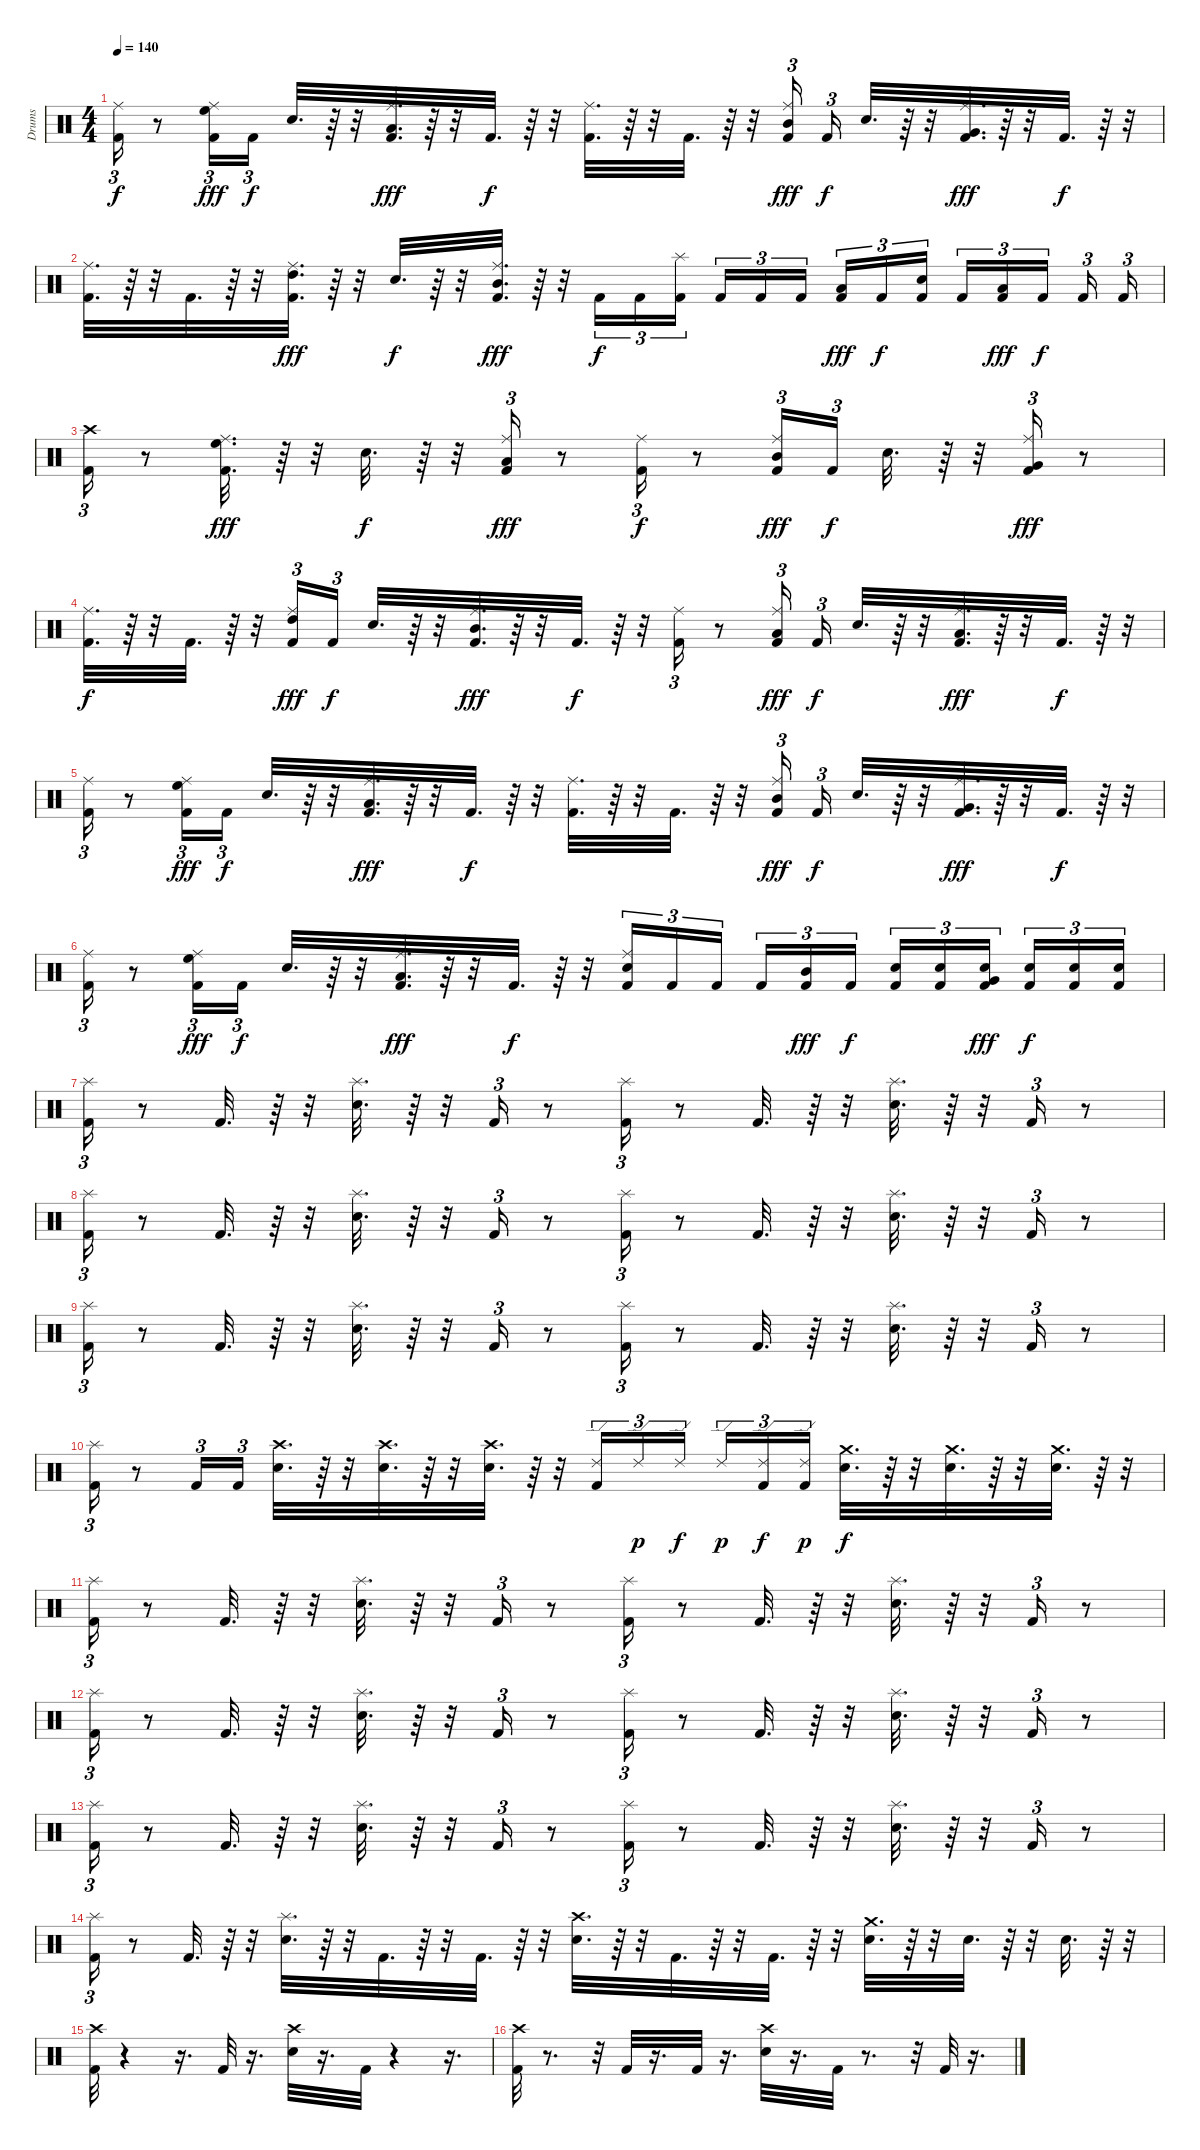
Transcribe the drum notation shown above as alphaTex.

\track ("Drums" "Drums") {instrument percussion}
\staff {score}
\articulation defaults
\ts (4 4)
\tempo 140
\clef neutral
\ks c
("Kick (hit) 2" "Ride (middle)").16{tu (3 2) dy f} r.8 ("Kick (hit) 2" "High Floor Tom (hit)" "Ride (middle)").16{tu (3 2) dy fff} "Kick (hit) 2".16{tu (3 2) dy f} "Electric Snare (hit)".32{d} r.64 r.32 ("Kick (hit) 2" "Low Tom (hit)" "Ride (middle)").32{d dy fff} r.64 r.32 "Kick (hit) 2".32{d dy f} r.64 r.32 ("Kick (hit) 2" "Ride (middle)").32{d} r.64 r.32 "Kick (hit) 2".32{d} r.64 r.32 ("Kick (hit) 2" "Mid Tom (hit)" "Ride (middle)").16{tu (3 2) dy fff} "Kick (hit) 2".16{tu (3 2) dy f} "Electric Snare (hit)".32{d} r.64 r.32 ("Kick (hit) 2" "Very Low Tom (hit)" "Ride (middle)").32{d dy fff} r.64 r.32 "Kick (hit) 2".32{d dy f} r.64 r.32 |
("Kick (hit) 2" "Ride (middle)").32{d} r.64 r.32 "Kick (hit) 2".32{d} r.64 r.32 ("Kick (hit) 2" "High Tom (hit)" "Ride (middle)").32{d dy fff} r.64 r.32 "Electric Snare (hit)".32{d dy f} r.64 r.32 ("Kick (hit) 2" "Mid Tom (hit)" "Ride (middle)").32{d dy fff} r.64 r.32 "Kick (hit) 2".16{tu (3 2) dy f} "Kick (hit) 2".16{tu (3 2)} ("Kick (hit) 2" "Splash (hit)").16{tu (3 2) beam splitsecondary} "Kick (hit) 2".16{tu (3 2)} "Kick (hit) 2".16{tu (3 2)} "Kick (hit) 2".16{tu (3 2) beam splitsecondary} ("Kick (hit) 2" "Low Tom (hit)").16{tu (3 2) dy fff} "Kick (hit) 2".16{tu (3 2) dy f} ("Kick (hit) 2" "Electric Snare (hit)").16{tu (3 2) beam splitsecondary} "Kick (hit) 2".16{tu (3 2)} ("Kick (hit) 2" "Low Floor Tom (hit)").16{tu (3 2) dy fff} "Kick (hit) 2".16{tu (3 2) dy f beam splitsecondary} "Kick (hit) 2".16{tu (3 2)} "Kick (hit) 2".16{tu (3 2)} |
("Kick (hit) 2" "Crash high (hit)").16{tu (3 2)} r.8 ("Kick (hit) 2" "High Floor Tom (hit)" "Ride (middle)").32{d dy fff} r.64 r.32 "Electric Snare (hit)".32{d dy f} r.64 r.32 ("Kick (hit) 2" "Low Tom (hit)" "Ride (middle)").16{tu (3 2) dy fff} r.8 ("Kick (hit) 2" "Ride (middle)").16{tu (3 2) dy f} r.8 ("Kick (hit) 2" "Mid Tom (hit)" "Ride (middle)").16{tu (3 2) dy fff} "Kick (hit) 2".16{tu (3 2) dy f} "Electric Snare (hit)".32{d} r.64 r.32 ("Kick (hit) 2" "Very Low Tom (hit)" "Ride (middle)").16{tu (3 2) dy fff} r.8 |
("Kick (hit) 2" "Ride (middle)").32{d dy f} r.64 r.32 "Kick (hit) 2".32{d} r.64 r.32 ("Kick (hit) 2" "High Tom (hit)" "Ride (middle)").16{tu (3 2) dy fff} "Kick (hit) 2".16{tu (3 2) dy f} "Electric Snare (hit)".32{d} r.64 r.32 ("Kick (hit) 2" "Mid Tom (hit)" "Ride (middle)").32{d dy fff} r.64 r.32 "Kick (hit) 2".32{d dy f} r.64 r.32 ("Kick (hit) 2" "Ride (middle)").16{tu (3 2)} r.8 ("Kick (hit) 2" "Low Tom (hit)" "Ride (middle)").16{tu (3 2) dy fff} "Kick (hit) 2".16{tu (3 2) dy f} "Electric Snare (hit)".32{d} r.64 r.32 ("Kick (hit) 2" "Low Floor Tom (hit)" "Ride (middle)").32{d dy fff} r.64 r.32 "Kick (hit) 2".32{d dy f} r.64 r.32 |
("Kick (hit) 2" "Ride (middle)").16{tu (3 2)} r.8 ("Kick (hit) 2" "High Floor Tom (hit)" "Ride (middle)").16{tu (3 2) dy fff} "Kick (hit) 2".16{tu (3 2) dy f} "Electric Snare (hit)".32{d} r.64 r.32 ("Kick (hit) 2" "Low Tom (hit)" "Ride (middle)").32{d dy fff} r.64 r.32 "Kick (hit) 2".32{d dy f} r.64 r.32 ("Kick (hit) 2" "Ride (middle)").32{d} r.64 r.32 "Kick (hit) 2".32{d} r.64 r.32 ("Kick (hit) 2" "Mid Tom (hit)" "Ride (middle)").16{tu (3 2) dy fff} "Kick (hit) 2".16{tu (3 2) dy f} "Electric Snare (hit)".32{d} r.64 r.32 ("Kick (hit) 2" "Very Low Tom (hit)" "Ride (middle)").32{d dy fff} r.64 r.32 "Kick (hit) 2".32{d dy f} r.64 r.32 |
("Kick (hit) 2" "Ride (middle)").16{tu (3 2)} r.8 ("Kick (hit) 2" "High Floor Tom (hit)" "Ride (middle)").16{tu (3 2) dy fff} "Kick (hit) 2".16{tu (3 2) dy f} "Electric Snare (hit)".32{d} r.64 r.32 ("Kick (hit) 2" "Low Tom (hit)" "Ride (middle)").32{d dy fff} r.64 r.32 "Kick (hit) 2".32{d dy f} r.64 r.32 ("Kick (hit) 2" "Electric Snare (hit)" "Ride (middle)").16{tu (3 2)} "Kick (hit) 2".16{tu (3 2)} "Kick (hit) 2".16{tu (3 2) beam splitsecondary} "Kick (hit) 2".16{tu (3 2)} ("Kick (hit) 2" "Mid Tom (hit)").16{tu (3 2) dy fff} "Kick (hit) 2".16{tu (3 2) dy f} ("Kick (hit) 2" "Electric Snare (hit)").16{tu (3 2)} ("Kick (hit) 2" "Electric Snare (hit)").16{tu (3 2)} ("Kick (hit) 2" "Electric Snare (hit)" "Very Low Tom (hit)").16{tu (3 2) dy fff beam splitsecondary} ("Kick (hit) 2" "Electric Snare (hit)").16{tu (3 2) dy f} ("Kick (hit) 2" "Electric Snare (hit)").16{tu (3 2)} ("Kick (hit) 2" "Electric Snare (hit)").16{tu (3 2)} |
("Kick (hit) 2" "Splash (hit)").16{tu (3 2)} r.8 "Kick (hit) 2".32{d} r.64 r.32 ("Electric Snare (hit)" "Splash (hit)").32{d} r.64 r.32 "Kick (hit) 2".16{tu (3 2)} r.8 ("Kick (hit) 2" "Splash (hit)").16{tu (3 2)} r.8 "Kick (hit) 2".32{d} r.64 r.32 ("Electric Snare (hit)" "Splash (hit)").32{d} r.64 r.32 "Kick (hit) 2".16{tu (3 2)} r.8 |
("Kick (hit) 2" "Splash (hit)").16{tu (3 2)} r.8 "Kick (hit) 2".32{d} r.64 r.32 ("Electric Snare (hit)" "Splash (hit)").32{d} r.64 r.32 "Kick (hit) 2".16{tu (3 2)} r.8 ("Kick (hit) 2" "Splash (hit)").16{tu (3 2)} r.8 "Kick (hit) 2".32{d} r.64 r.32 ("Electric Snare (hit)" "Splash (hit)").32{d} r.64 r.32 "Kick (hit) 2".16{tu (3 2)} r.8 |
("Kick (hit) 2" "Splash (hit)").16{tu (3 2)} r.8 "Kick (hit) 2".32{d} r.64 r.32 ("Electric Snare (hit)" "Splash (hit)").32{d} r.64 r.32 "Kick (hit) 2".16{tu (3 2)} r.8 ("Kick (hit) 2" "Splash (hit)").16{tu (3 2)} r.8 "Kick (hit) 2".32{d} r.64 r.32 ("Electric Snare (hit)" "Splash (hit)").32{d} r.64 r.32 "Kick (hit) 2".16{tu (3 2)} r.8 |
("Kick (hit) 2" "Splash (hit)").16{tu (3 2)} r.8 "Kick (hit) 2".16{tu (3 2)} "Kick (hit) 2".16{tu (3 2)} ("Electric Snare (hit)" "Crash high (hit)").32{d} r.64 r.32 ("Electric Snare (hit)" "Crash high (hit)").32{d} r.64 r.32 ("Electric Snare (hit)" "Crash high (hit)").32{d} r.64 r.32 ("Kick (hit) 2" "Ride (edge) 2").16{tu (3 2)} "Ride (edge) 2".16{tu (3 2) dy p} "Ride (edge) 2".16{tu (3 2) dy f beam splitsecondary} "Ride (edge) 2".16{tu (3 2) dy p} ("Kick (hit) 2" "Ride (edge) 2").16{tu (3 2) dy f} ("Kick (hit) 2" "Ride (edge) 2").16{tu (3 2) dy p} ("Electric Snare (hit)" "Crash medium (hit)").32{d dy f} r.64 r.32 ("Electric Snare (hit)" "Crash medium (hit)").32{d} r.64 r.32 ("Electric Snare (hit)" "Crash medium (hit)").32{d} r.64 r.32 |
("Kick (hit) 2" "Splash (hit)").16{tu (3 2)} r.8 "Kick (hit) 2".32{d} r.64 r.32 ("Electric Snare (hit)" "Splash (hit)").32{d} r.64 r.32 "Kick (hit) 2".16{tu (3 2)} r.8 ("Kick (hit) 2" "Splash (hit)").16{tu (3 2)} r.8 "Kick (hit) 2".32{d} r.64 r.32 ("Electric Snare (hit)" "Splash (hit)").32{d} r.64 r.32 "Kick (hit) 2".16{tu (3 2)} r.8 |
("Kick (hit) 2" "Splash (hit)").16{tu (3 2)} r.8 "Kick (hit) 2".32{d} r.64 r.32 ("Electric Snare (hit)" "Splash (hit)").32{d} r.64 r.32 "Kick (hit) 2".16{tu (3 2)} r.8 ("Kick (hit) 2" "Splash (hit)").16{tu (3 2)} r.8 "Kick (hit) 2".32{d} r.64 r.32 ("Electric Snare (hit)" "Splash (hit)").32{d} r.64 r.32 "Kick (hit) 2".16{tu (3 2)} r.8 |
("Kick (hit) 2" "Splash (hit)").16{tu (3 2)} r.8 "Kick (hit) 2".32{d} r.64 r.32 ("Electric Snare (hit)" "Splash (hit)").32{d} r.64 r.32 "Kick (hit) 2".16{tu (3 2)} r.8 ("Kick (hit) 2" "Splash (hit)").16{tu (3 2)} r.8 "Kick (hit) 2".32{d} r.64 r.32 ("Electric Snare (hit)" "Splash (hit)").32{d} r.64 r.32 "Kick (hit) 2".16{tu (3 2)} r.8 |
("Kick (hit) 2" "Splash (hit)").16{tu (3 2)} r.8 "Kick (hit) 2".32{d} r.64 r.32 ("Electric Snare (hit)" "Splash (hit)").32{d} r.64 r.32 "Kick (hit) 2".32{d} r.64 r.32 "Kick (hit) 2".32{d} r.64 r.32 ("Electric Snare (hit)" "Crash high (hit)").32{d} r.64 r.32 "Kick (hit) 2".32{d} r.64 r.32 "Kick (hit) 2".32{d} r.64 r.32 ("Electric Snare (hit)" "Crash medium (hit)").32{d} r.64 r.32 "Electric Snare (hit)".32{d} r.64 r.32 "Electric Snare (hit)".32{d} r.64 r.32 |
("Kick (hit) 2" "Crash high (hit)").32 r.4 r.16{d} "Kick (hit) 2".32 r.16{d} ("Electric Snare (hit)" "Crash high (hit)").32 r.16{d} "Kick (hit) 2".32 r.4 r.16{d} |
("Kick (hit) 2" "Crash high (hit)").32 r.8{d} r.32 "Kick (hit) 2".32 r.16{d} "Kick (hit) 2".32 r.16{d} ("Electric Snare (hit)" "Crash high (hit)").32 r.16{d} "Kick (hit) 2".32 r.8{d} r.32 "Kick (hit) 2".32 r.16{d}
